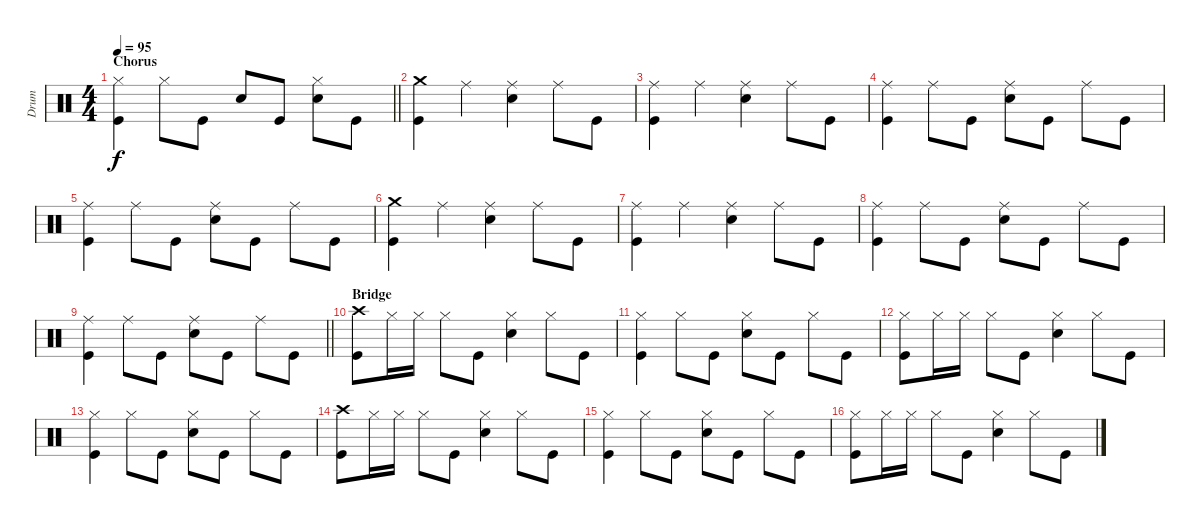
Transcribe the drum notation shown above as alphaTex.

\track ("Drum" "Drum") {instrument percussion}
\staff {score}
\articulation defaults
\ts (4 4)
\section ("" "Chorus")
\tempo 95
\clef neutral
\barLineRight lightlight
\ks c
("Hi-Hat (closed)" "Kick (hit)").4{dy f} "Hi-Hat (closed)".8 "Kick (hit)".8 "Electric Snare (hit)".8 "Kick (hit)".8 ("Hi-Hat (closed)" "Electric Snare (hit)").8 "Kick (hit)".8 |
("Crash medium (hit)" "Kick (hit)").4 "Ride (middle)".4 ("Ride (middle)" "Electric Snare (hit)").4 "Ride (middle)".8 "Kick (hit)".8 |
("Ride (middle)" "Kick (hit)").4 "Ride (middle)".4 ("Ride (middle)" "Electric Snare (hit)").4 "Ride (middle)".8 "Kick (hit)".8 |
("Ride (middle)" "Kick (hit)").4 "Ride (middle)".8 "Kick (hit)".8 ("Ride (middle)" "Electric Snare (hit)").8 "Kick (hit)".8 "Ride (middle)".8 "Kick (hit)".8 |
("Ride (middle)" "Kick (hit)").4 "Ride (middle)".8 "Kick (hit)".8 ("Ride (middle)" "Electric Snare (hit)").8 "Kick (hit)".8 "Ride (middle)".8 "Kick (hit)".8 |
("Crash medium (hit)" "Kick (hit)").4 "Ride (middle)".4 ("Ride (middle)" "Electric Snare (hit)").4 "Ride (middle)".8 "Kick (hit)".8 |
("Ride (middle)" "Kick (hit)").4 "Ride (middle)".4 ("Ride (middle)" "Electric Snare (hit)").4 "Ride (middle)".8 "Kick (hit)".8 |
("Ride (middle)" "Kick (hit)").4 "Ride (middle)".8 "Kick (hit)".8 ("Ride (middle)" "Electric Snare (hit)").8 "Kick (hit)".8 "Ride (middle)".8 "Kick (hit)".8 |
\barLineRight lightlight
("Ride (middle)" "Kick (hit)").4 "Ride (middle)".8 "Kick (hit)".8 ("Ride (middle)" "Electric Snare (hit)").8 "Kick (hit)".8 "Ride (middle)".8 "Kick (hit)".8 |
\section ("" "Bridge")
("Crash high (hit)" "Kick (hit)").8 "Hi-Hat (closed)".16 "Hi-Hat (closed)".16 "Hi-Hat (closed)".8 "Kick (hit)".8 ("Hi-Hat (closed)" "Electric Snare (hit)").4 "Hi-Hat (closed)".8 "Kick (hit)".8 |
("Hi-Hat (closed)" "Kick (hit)").4 "Hi-Hat (closed)".8 "Kick (hit)".8 ("Hi-Hat (closed)" "Electric Snare (hit)").8 "Kick (hit)".8 "Hi-Hat (closed)".8 "Kick (hit)".8 |
("Hi-Hat (closed)" "Kick (hit)").8 "Hi-Hat (closed)".16 "Hi-Hat (closed)".16 "Hi-Hat (closed)".8 "Kick (hit)".8 ("Hi-Hat (closed)" "Electric Snare (hit)").4 "Hi-Hat (closed)".8 "Kick (hit)".8 |
("Hi-Hat (closed)" "Kick (hit)").4 "Hi-Hat (closed)".8 "Kick (hit)".8 ("Hi-Hat (closed)" "Electric Snare (hit)").8 "Kick (hit)".8 "Hi-Hat (closed)".8 "Kick (hit)".8 |
("Crash high (hit)" "Kick (hit)").8 "Hi-Hat (closed)".16 "Hi-Hat (closed)".16 "Hi-Hat (closed)".8 "Kick (hit)".8 ("Hi-Hat (closed)" "Electric Snare (hit)").4 "Hi-Hat (closed)".8 "Kick (hit)".8 |
("Hi-Hat (closed)" "Kick (hit)").4 "Hi-Hat (closed)".8 "Kick (hit)".8 ("Hi-Hat (closed)" "Electric Snare (hit)").8 "Kick (hit)".8 "Hi-Hat (closed)".8 "Kick (hit)".8 |
("Hi-Hat (closed)" "Kick (hit)").8 "Hi-Hat (closed)".16 "Hi-Hat (closed)".16 "Hi-Hat (closed)".8 "Kick (hit)".8 ("Hi-Hat (closed)" "Electric Snare (hit)").4 "Hi-Hat (closed)".8 "Kick (hit)".8
